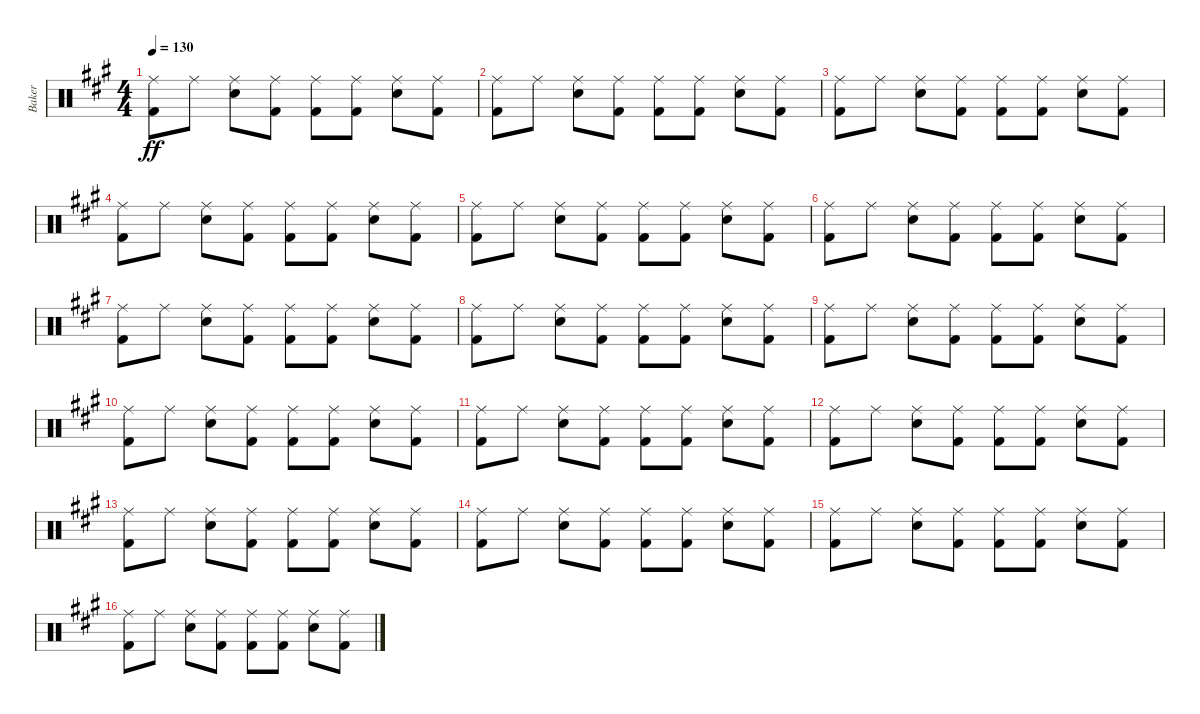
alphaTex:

\track ("Baker" "Baker") {instrument percussion}
\staff {score}
\articulation defaults
\ts (4 4)
\tempo 130
\clef neutral
\ks a
("Ride (middle)" "Kick (hit) 2").8{dy ff} "Ride (middle)".8 ("Ride (middle)" "Snare (hit) 2").8 ("Ride (middle)" "Kick (hit) 2").8 ("Ride (middle)" "Kick (hit) 2").8 ("Ride (middle)" "Kick (hit) 2").8 ("Ride (middle)" "Snare (hit) 2").8 ("Ride (middle)" "Kick (hit) 2").8 |
("Ride (middle)" "Kick (hit) 2").8 "Ride (middle)".8 ("Ride (middle)" "Snare (hit) 2").8 ("Ride (middle)" "Kick (hit) 2").8 ("Ride (middle)" "Kick (hit) 2").8 ("Ride (middle)" "Kick (hit) 2").8 ("Ride (middle)" "Snare (hit) 2").8 ("Ride (middle)" "Kick (hit) 2").8 |
("Ride (middle)" "Kick (hit) 2").8 "Ride (middle)".8 ("Ride (middle)" "Snare (hit) 2").8 ("Ride (middle)" "Kick (hit) 2").8 ("Ride (middle)" "Kick (hit) 2").8 ("Ride (middle)" "Kick (hit) 2").8 ("Ride (middle)" "Snare (hit) 2").8 ("Ride (middle)" "Kick (hit) 2").8 |
("Ride (middle)" "Kick (hit) 2").8 "Ride (middle)".8 ("Ride (middle)" "Snare (hit) 2").8 ("Ride (middle)" "Kick (hit) 2").8 ("Ride (middle)" "Kick (hit) 2").8 ("Ride (middle)" "Kick (hit) 2").8 ("Ride (middle)" "Snare (hit) 2").8 ("Ride (middle)" "Kick (hit) 2").8 |
("Ride (middle)" "Kick (hit) 2").8 "Ride (middle)".8 ("Ride (middle)" "Snare (hit) 2").8 ("Ride (middle)" "Kick (hit) 2").8 ("Ride (middle)" "Kick (hit) 2").8 ("Ride (middle)" "Kick (hit) 2").8 ("Ride (middle)" "Snare (hit) 2").8 ("Ride (middle)" "Kick (hit) 2").8 |
("Ride (middle)" "Kick (hit) 2").8 "Ride (middle)".8 ("Ride (middle)" "Snare (hit) 2").8 ("Ride (middle)" "Kick (hit) 2").8 ("Ride (middle)" "Kick (hit) 2").8 ("Ride (middle)" "Kick (hit) 2").8 ("Ride (middle)" "Snare (hit) 2").8 ("Ride (middle)" "Kick (hit) 2").8 |
("Ride (middle)" "Kick (hit) 2").8 "Ride (middle)".8 ("Ride (middle)" "Snare (hit) 2").8 ("Ride (middle)" "Kick (hit) 2").8 ("Ride (middle)" "Kick (hit) 2").8 ("Ride (middle)" "Kick (hit) 2").8 ("Ride (middle)" "Snare (hit) 2").8 ("Ride (middle)" "Kick (hit) 2").8 |
("Ride (middle)" "Kick (hit) 2").8 "Ride (middle)".8 ("Ride (middle)" "Snare (hit) 2").8 ("Ride (middle)" "Kick (hit) 2").8 ("Ride (middle)" "Kick (hit) 2").8 ("Ride (middle)" "Kick (hit) 2").8 ("Ride (middle)" "Snare (hit) 2").8 ("Ride (middle)" "Kick (hit) 2").8 |
("Ride (middle)" "Kick (hit) 2").8 "Ride (middle)".8 ("Ride (middle)" "Snare (hit) 2").8 ("Ride (middle)" "Kick (hit) 2").8 ("Ride (middle)" "Kick (hit) 2").8 ("Ride (middle)" "Kick (hit) 2").8 ("Ride (middle)" "Snare (hit) 2").8 ("Ride (middle)" "Kick (hit) 2").8 |
("Ride (middle)" "Kick (hit) 2").8 "Ride (middle)".8 ("Ride (middle)" "Snare (hit) 2").8 ("Ride (middle)" "Kick (hit) 2").8 ("Ride (middle)" "Kick (hit) 2").8 ("Ride (middle)" "Kick (hit) 2").8 ("Ride (middle)" "Snare (hit) 2").8 ("Ride (middle)" "Kick (hit) 2").8 |
("Ride (middle)" "Kick (hit) 2").8 "Ride (middle)".8 ("Ride (middle)" "Snare (hit) 2").8 ("Ride (middle)" "Kick (hit) 2").8 ("Ride (middle)" "Kick (hit) 2").8 ("Ride (middle)" "Kick (hit) 2").8 ("Ride (middle)" "Snare (hit) 2").8 ("Ride (middle)" "Kick (hit) 2").8 |
("Ride (middle)" "Kick (hit) 2").8 "Ride (middle)".8 ("Ride (middle)" "Snare (hit) 2").8 ("Ride (middle)" "Kick (hit) 2").8 ("Ride (middle)" "Kick (hit) 2").8 ("Ride (middle)" "Kick (hit) 2").8 ("Ride (middle)" "Snare (hit) 2").8 ("Ride (middle)" "Kick (hit) 2").8 |
("Ride (middle)" "Kick (hit) 2").8 "Ride (middle)".8 ("Ride (middle)" "Snare (hit) 2").8 ("Ride (middle)" "Kick (hit) 2").8 ("Ride (middle)" "Kick (hit) 2").8 ("Ride (middle)" "Kick (hit) 2").8 ("Ride (middle)" "Snare (hit) 2").8 ("Ride (middle)" "Kick (hit) 2").8 |
("Ride (middle)" "Kick (hit) 2").8 "Ride (middle)".8 ("Ride (middle)" "Snare (hit) 2").8 ("Ride (middle)" "Kick (hit) 2").8 ("Ride (middle)" "Kick (hit) 2").8 ("Ride (middle)" "Kick (hit) 2").8 ("Ride (middle)" "Snare (hit) 2").8 ("Ride (middle)" "Kick (hit) 2").8 |
("Ride (middle)" "Kick (hit) 2").8 "Ride (middle)".8 ("Ride (middle)" "Snare (hit) 2").8 ("Ride (middle)" "Kick (hit) 2").8 ("Ride (middle)" "Kick (hit) 2").8 ("Ride (middle)" "Kick (hit) 2").8 ("Ride (middle)" "Snare (hit) 2").8 ("Ride (middle)" "Kick (hit) 2").8 |
("Ride (middle)" "Kick (hit) 2").8 "Ride (middle)".8 ("Ride (middle)" "Snare (hit) 2").8 ("Ride (middle)" "Kick (hit) 2").8 ("Ride (middle)" "Kick (hit) 2").8 ("Ride (middle)" "Kick (hit) 2").8 ("Ride (middle)" "Snare (hit) 2").8 ("Ride (middle)" "Kick (hit) 2").8
